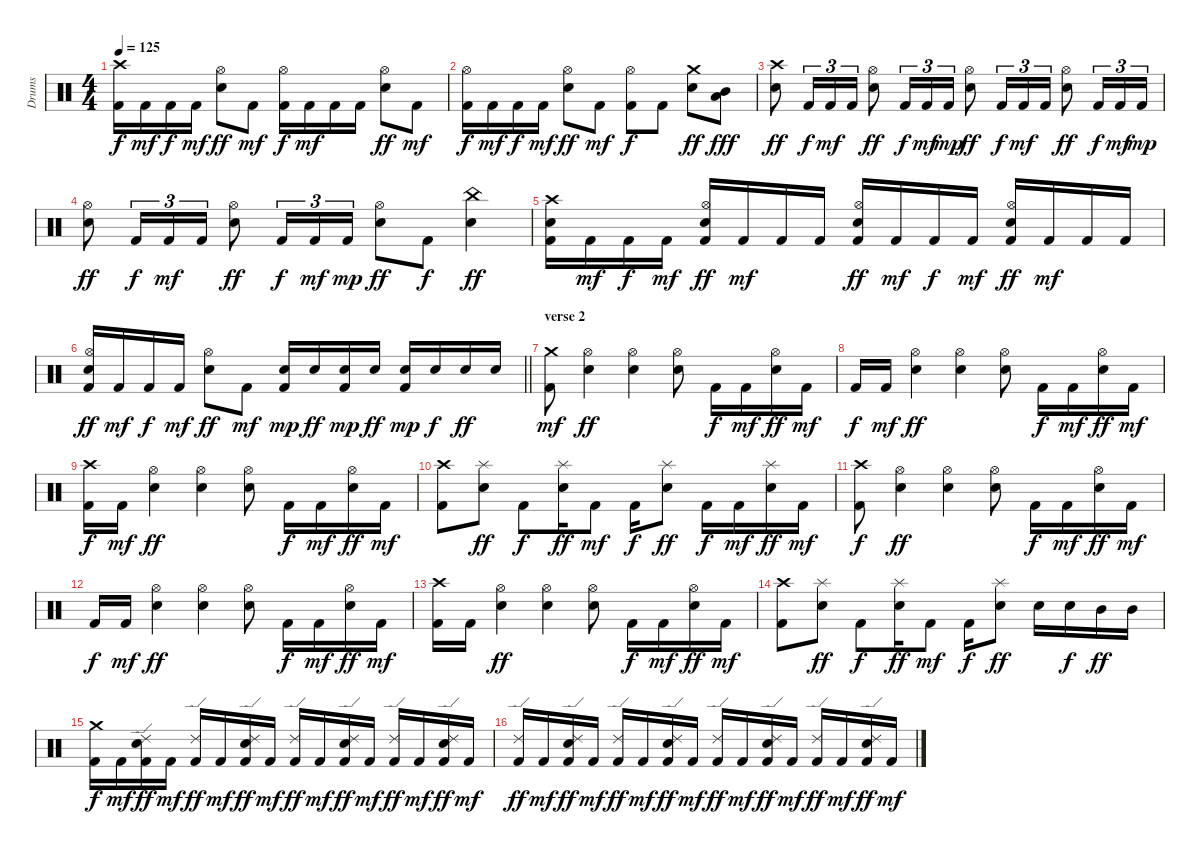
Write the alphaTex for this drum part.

\track ("Drums" "Drums") {instrument percussion}
\staff {score}
\articulation defaults
\ts (4 4)
\tempo 125
\clef neutral
\ks c
("Crash high (hit)" "Kick (hit) 2").16{dy f} "Kick (hit) 2".16{dy mf} "Kick (hit) 2".16{dy f} "Kick (hit) 2".16{dy mf} ("Hi-Hat (open)" "Snare (hit) 2").8{dy ff} "Kick (hit) 2".8{dy mf} ("Hi-Hat (open)" "Kick (hit) 2").16{dy f} "Kick (hit) 2".16{dy mf} "Kick (hit) 2".16 "Kick (hit) 2".16 ("Hi-Hat (open)" "Snare (hit) 2").8{dy ff} "Kick (hit) 2".8{dy mf} |
("Hi-Hat (open)" "Kick (hit) 2").16{dy f} "Kick (hit) 2".16{dy mf} "Kick (hit) 2".16{dy f} "Kick (hit) 2".16{dy mf} ("Hi-Hat (open)" "Snare (hit) 2").8{dy ff} "Kick (hit) 2".8{dy mf} ("Hi-Hat (open)" "Kick (hit) 2").8{dy f} "Kick (hit) 2".8 ("Crash medium (hit)" "Snare (hit) 2").8{dy ff} ("Low Tom (hit)" "Mid Tom (hit)").8{dy fff} |
("Crash high (hit)" "Snare (hit) 2").8{dy ff} "Kick (hit) 2".16{tu (3 2) dy f} "Kick (hit) 2".16{tu (3 2) dy mf} "Kick (hit) 2".16{tu (3 2)} ("Hi-Hat (open)" "Snare (hit) 2").8{dy ff} "Kick (hit) 2".16{tu (3 2) dy f} "Kick (hit) 2".16{tu (3 2) dy mf} "Kick (hit) 2".16{tu (3 2) dy mp} ("Hi-Hat (open)" "Snare (hit) 2").8{dy ff} "Kick (hit) 2".16{tu (3 2) dy f} "Kick (hit) 2".16{tu (3 2) dy mf} "Kick (hit) 2".16{tu (3 2)} ("Hi-Hat (open)" "Snare (hit) 2").8{dy ff} "Kick (hit) 2".16{tu (3 2) dy f} "Kick (hit) 2".16{tu (3 2) dy mf} "Kick (hit) 2".16{tu (3 2) dy mp} |
("Hi-Hat (open)" "Snare (hit) 2").8{dy ff} "Kick (hit) 2".16{tu (3 2) dy f} "Kick (hit) 2".16{tu (3 2) dy mf} "Kick (hit) 2".16{tu (3 2)} ("Hi-Hat (open)" "Snare (hit) 2").8{dy ff} "Kick (hit) 2".16{tu (3 2) dy f} "Kick (hit) 2".16{tu (3 2) dy mf} "Kick (hit) 2".16{tu (3 2) dy mp} ("Hi-Hat (open)" "Snare (hit) 2").8{dy ff} "Kick (hit) 2".8{dy f} ("China (hit)" "Snare (hit) 2").4{dy ff} |
("Crash high (hit)" "Snare (hit) 2" "Kick (hit) 2").16 "Kick (hit) 2".16{dy mf} "Kick (hit) 2".16{dy f} "Kick (hit) 2".16{dy mf} ("Hi-Hat (open)" "Snare (hit) 2" "Kick (hit) 2").16{dy ff} "Kick (hit) 2".16{dy mf} "Kick (hit) 2".16 "Kick (hit) 2".16 ("Hi-Hat (open)" "Snare (hit) 2" "Kick (hit) 2").16{dy ff} "Kick (hit) 2".16{dy mf} "Kick (hit) 2".16{dy f} "Kick (hit) 2".16{dy mf} ("Hi-Hat (open)" "Snare (hit) 2" "Kick (hit) 2").16{dy ff} "Kick (hit) 2".16{dy mf} "Kick (hit) 2".16 "Kick (hit) 2".16 |
\barLineRight lightlight
("Hi-Hat (open)" "Snare (hit) 2" "Kick (hit) 2").16{dy ff} "Kick (hit) 2".16{dy mf} "Kick (hit) 2".16{dy f} "Kick (hit) 2".16{dy mf} ("Hi-Hat (open)" "Snare (hit) 2").8{dy ff} "Kick (hit) 2".8{dy mf} ("Snare (hit) 2" "Kick (hit) 2").16{dy mp} "Snare (hit) 2".16{dy ff} ("Snare (hit) 2" "Kick (hit) 2").16{dy mp} "Snare (hit) 2".16{dy ff} ("Snare (hit) 2" "Kick (hit) 2").16{dy mp} "Snare (hit) 2".16{dy f} "Snare (hit) 2".16{dy ff} "Snare (hit) 2".16 |
\section ("" "verse 2")
("Crash medium (hit)" "Kick (hit) 2").8{dy mf} ("Hi-Hat (open)" "Snare (hit) 2").4{dy ff} ("Hi-Hat (open)" "Snare (hit) 2").4 ("Hi-Hat (open)" "Snare (hit) 2").8 "Kick (hit) 2".16{dy f} "Kick (hit) 2".16{dy mf} ("Hi-Hat (open)" "Snare (hit) 2").16{dy ff} "Kick (hit) 2".16{dy mf} |
"Kick (hit) 2".16{dy f} "Kick (hit) 2".16{dy mf} ("Hi-Hat (open)" "Snare (hit) 2").4{dy ff} ("Hi-Hat (open)" "Snare (hit) 2").4 ("Hi-Hat (open)" "Snare (hit) 2").8 "Kick (hit) 2".16{dy f} "Kick (hit) 2".16{dy mf} ("Hi-Hat (open)" "Snare (hit) 2").16{dy ff} "Kick (hit) 2".16{dy mf} |
("Crash high (hit)" "Kick (hit) 2").16{dy f} "Kick (hit) 2".16{dy mf} ("Hi-Hat (open)" "Snare (hit) 2").4{dy ff} ("Hi-Hat (open)" "Snare (hit) 2").4 ("Hi-Hat (open)" "Snare (hit) 2").8 "Kick (hit) 2".16{dy f} "Kick (hit) 2".16{dy mf} ("Hi-Hat (open)" "Snare (hit) 2").16{dy ff} "Kick (hit) 2".16{dy mf} |
("Crash high (hit)" "Kick (hit) 2").8 ("Splash (hit)" "Snare (hit) 2").8{dy ff} "Kick (hit) 2".8{dy f} ("Splash (hit)" "Snare (hit) 2").16{dy ff} "Kick (hit) 2".8{dy mf} "Kick (hit) 2".16{dy f} ("Splash (hit)" "Snare (hit) 2").8{dy ff} "Kick (hit) 2".16{dy f} "Kick (hit) 2".16{dy mf} ("Splash (hit)" "Snare (hit) 2").16{dy ff} "Kick (hit) 2".16{dy mf} |
("Crash high (hit)" "Kick (hit) 2").8{dy f} ("Hi-Hat (open)" "Snare (hit) 2").4{dy ff} ("Hi-Hat (open)" "Snare (hit) 2").4 ("Hi-Hat (open)" "Snare (hit) 2").8 "Kick (hit) 2".16{dy f} "Kick (hit) 2".16{dy mf} ("Hi-Hat (open)" "Snare (hit) 2").16{dy ff} "Kick (hit) 2".16{dy mf} |
"Kick (hit) 2".16{dy f} "Kick (hit) 2".16{dy mf} ("Hi-Hat (open)" "Snare (hit) 2").4{dy ff} ("Hi-Hat (open)" "Snare (hit) 2").4 ("Hi-Hat (open)" "Snare (hit) 2").8 "Kick (hit) 2".16{dy f} "Kick (hit) 2".16{dy mf} ("Hi-Hat (open)" "Snare (hit) 2").16{dy ff} "Kick (hit) 2".16{dy mf} |
("Crash high (hit)" "Kick (hit) 2").16 "Kick (hit) 2".16 ("Hi-Hat (open)" "Snare (hit) 2").4{dy ff} ("Hi-Hat (open)" "Snare (hit) 2").4 ("Hi-Hat (open)" "Snare (hit) 2").8 "Kick (hit) 2".16{dy f} "Kick (hit) 2".16{dy mf} ("Hi-Hat (open)" "Snare (hit) 2").16{dy ff} "Kick (hit) 2".16{dy mf} |
("Crash high (hit)" "Kick (hit) 2").8 ("Splash (hit)" "Snare (hit) 2").8{dy ff} "Kick (hit) 2".8{dy f} ("Splash (hit)" "Snare (hit) 2").16{dy ff} "Kick (hit) 2".8{dy mf} "Kick (hit) 2".16{dy f} ("Splash (hit)" "Snare (hit) 2").8{dy ff} "Snare (hit) 2".16 "Snare (hit) 2".16{dy f} "Mid Tom (hit)".16{dy ff} "Mid Tom (hit)".16 |
("Crash medium (hit)" "Kick (hit) 2").16{dy f} "Kick (hit) 2".16{dy mf} ("Ride (edge) 2" "Snare (hit) 2" "Kick (hit) 2").16{dy ff} "Kick (hit) 2".16{dy mf} ("Ride (edge) 2" "Kick (hit) 2").16{dy ff} "Kick (hit) 2".16{dy mf} ("Ride (edge) 2" "Snare (hit) 2" "Kick (hit) 2").16{dy ff} "Kick (hit) 2".16{dy mf} ("Ride (edge) 2" "Kick (hit) 2").16{dy ff} "Kick (hit) 2".16{dy mf} ("Ride (edge) 2" "Snare (hit) 2" "Kick (hit) 2").16{dy ff} "Kick (hit) 2".16{dy mf} ("Ride (edge) 2" "Kick (hit) 2").16{dy ff} "Kick (hit) 2".16{dy mf} ("Ride (edge) 2" "Snare (hit) 2" "Kick (hit) 2").16{dy ff} "Kick (hit) 2".16{dy mf} |
("Ride (edge) 2" "Kick (hit) 2").16{dy ff} "Kick (hit) 2".16{dy mf} ("Ride (edge) 2" "Snare (hit) 2" "Kick (hit) 2").16{dy ff} "Kick (hit) 2".16{dy mf} ("Ride (edge) 2" "Kick (hit) 2").16{dy ff} "Kick (hit) 2".16{dy mf} ("Ride (edge) 2" "Snare (hit) 2" "Kick (hit) 2").16{dy ff} "Kick (hit) 2".16{dy mf} ("Ride (edge) 2" "Kick (hit) 2").16{dy ff} "Kick (hit) 2".16{dy mf} ("Ride (edge) 2" "Snare (hit) 2" "Kick (hit) 2").16{dy ff} "Kick (hit) 2".16{dy mf} ("Ride (edge) 2" "Kick (hit) 2").16{dy ff} "Kick (hit) 2".16{dy mf} ("Ride (edge) 2" "Snare (hit) 2" "Kick (hit) 2").16{dy ff} "Kick (hit) 2".16{dy mf}
